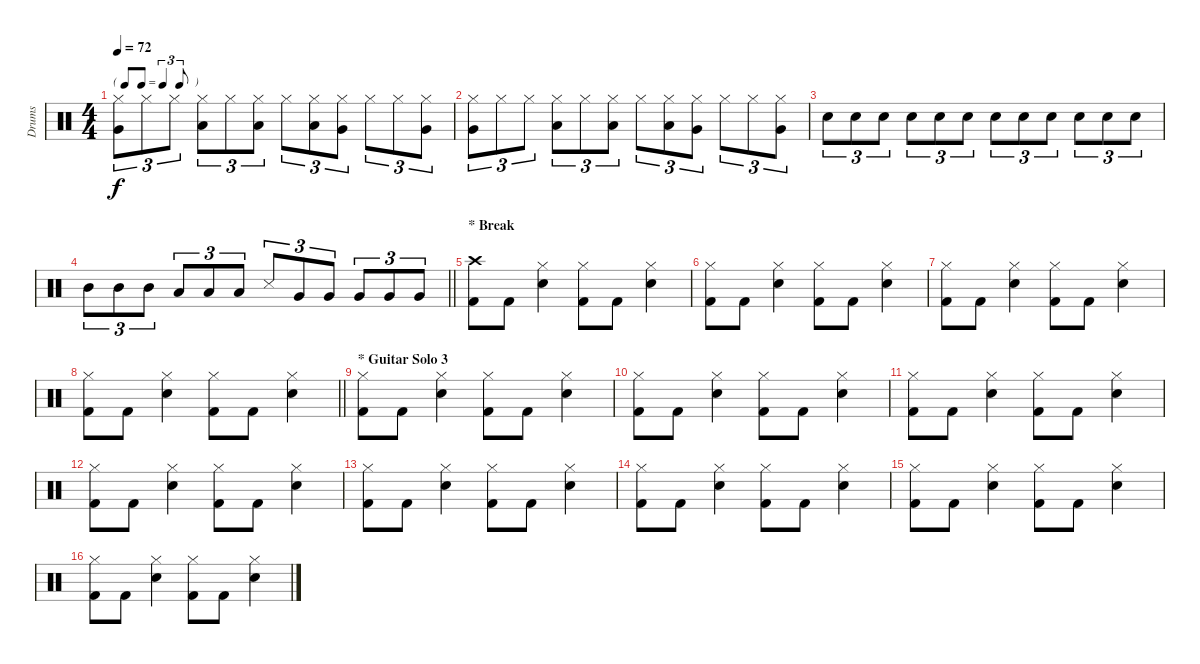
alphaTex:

\track ("Drums" "Drums") {instrument percussion}
\staff {score}
\articulation defaults
\ts (4 4)
\tf triplet8th
\tempo 72
\clef neutral
\ks c
("Hi-Hat (closed)" "Very Low Tom (hit)").8{tu (3 2) dy f} "Hi-Hat (closed)".8{tu (3 2)} "Hi-Hat (closed)".8{tu (3 2)} ("Hi-Hat (closed)" "Low Tom (hit)").8{tu (3 2)} "Hi-Hat (closed)".8{tu (3 2)} ("Hi-Hat (closed)" "Low Tom (hit)").8{tu (3 2)} "Hi-Hat (closed)".8{tu (3 2)} ("Hi-Hat (closed)" "Low Tom (hit)").8{tu (3 2)} ("Hi-Hat (closed)" "Very Low Tom (hit)").8{tu (3 2)} "Hi-Hat (closed)".8{tu (3 2)} "Hi-Hat (closed)".8{tu (3 2)} ("Hi-Hat (closed)" "Very Low Tom (hit)").8{tu (3 2)} |
("Hi-Hat (closed)" "Very Low Tom (hit)").8{tu (3 2)} "Hi-Hat (closed)".8{tu (3 2)} "Hi-Hat (closed)".8{tu (3 2)} ("Hi-Hat (closed)" "Low Tom (hit)").8{tu (3 2)} "Hi-Hat (closed)".8{tu (3 2)} ("Hi-Hat (closed)" "Low Tom (hit)").8{tu (3 2)} "Hi-Hat (closed)".8{tu (3 2)} ("Hi-Hat (closed)" "Low Tom (hit)").8{tu (3 2)} ("Hi-Hat (closed)" "Very Low Tom (hit)").8{tu (3 2)} "Hi-Hat (closed)".8{tu (3 2)} "Hi-Hat (closed)".8{tu (3 2)} ("Hi-Hat (closed)" "Very Low Tom (hit)").8{tu (3 2)} |
"Electric Snare (hit)".8{tu (3 2)} "Electric Snare (hit)".8{tu (3 2)} "Electric Snare (hit)".8{tu (3 2)} "Electric Snare (hit)".8{tu (3 2)} "Electric Snare (hit)".8{tu (3 2)} "Electric Snare (hit)".8{tu (3 2)} "Electric Snare (hit)".8{tu (3 2)} "Electric Snare (hit)".8{tu (3 2)} "Electric Snare (hit)".8{tu (3 2)} "Electric Snare (hit)".8{tu (3 2)} "Electric Snare (hit)".8{tu (3 2)} "Electric Snare (hit)".8{tu (3 2)} |
\barLineRight lightlight "Mid Tom (hit)".8{tu (3 2)} "Mid Tom (hit)".8{tu (3 2)} "Mid Tom (hit)".8{tu (3 2)} "Low Tom (hit)".8{tu (3 2)} "Low Tom (hit)".8{tu (3 2)} "Low Tom (hit)".8{tu (3 2)} "Snare (side stick) 3".8{tu (3 2)} "Very Low Tom (hit)".8{tu (3 2)} "Very Low Tom (hit)".8{tu (3 2)} "Very Low Tom (hit)".8{tu (3 2)} "Very Low Tom (hit)".8{tu (3 2)} "Very Low Tom (hit)".8{tu (3 2)}
|
\section ("" "* Break")
("Crash high (hit)" "Kick (hit) 2").8 "Kick (hit) 2".8 ("Hi-Hat (closed)" "Electric Snare (hit)").4 ("Hi-Hat (closed)" "Kick (hit) 2").8 "Kick (hit) 2".8 ("Hi-Hat (closed)" "Electric Snare (hit)").4 |
("Hi-Hat (closed)" "Kick (hit) 2").8 "Kick (hit) 2".8 ("Hi-Hat (closed)" "Electric Snare (hit)").4 ("Hi-Hat (closed)" "Kick (hit) 2").8 "Kick (hit) 2".8 ("Hi-Hat (closed)" "Electric Snare (hit)").4 |
("Hi-Hat (closed)" "Kick (hit) 2").8 "Kick (hit) 2".8 ("Hi-Hat (closed)" "Electric Snare (hit)").4 ("Hi-Hat (closed)" "Kick (hit) 2").8 "Kick (hit) 2".8 ("Hi-Hat (closed)" "Electric Snare (hit)").4 |
\barLineRight lightlight
("Hi-Hat (closed)" "Kick (hit) 2").8 "Kick (hit) 2".8 ("Hi-Hat (closed)" "Electric Snare (hit)").4 ("Hi-Hat (closed)" "Kick (hit) 2").8 "Kick (hit) 2".8 ("Hi-Hat (closed)" "Electric Snare (hit)").4 |
\section ("" "* Guitar Solo 3")
("Hi-Hat (closed)" "Kick (hit) 2").8 "Kick (hit) 2".8 ("Hi-Hat (closed)" "Electric Snare (hit)").4 ("Hi-Hat (closed)" "Kick (hit) 2").8 "Kick (hit) 2".8 ("Hi-Hat (closed)" "Electric Snare (hit)").4 |
("Hi-Hat (closed)" "Kick (hit) 2").8 "Kick (hit) 2".8 ("Hi-Hat (closed)" "Electric Snare (hit)").4 ("Hi-Hat (closed)" "Kick (hit) 2").8 "Kick (hit) 2".8 ("Hi-Hat (closed)" "Electric Snare (hit)").4 |
("Hi-Hat (closed)" "Kick (hit) 2").8 "Kick (hit) 2".8 ("Hi-Hat (closed)" "Electric Snare (hit)").4 ("Hi-Hat (closed)" "Kick (hit) 2").8 "Kick (hit) 2".8 ("Hi-Hat (closed)" "Electric Snare (hit)").4 |
("Hi-Hat (closed)" "Kick (hit) 2").8 "Kick (hit) 2".8 ("Hi-Hat (closed)" "Electric Snare (hit)").4 ("Hi-Hat (closed)" "Kick (hit) 2").8 "Kick (hit) 2".8 ("Hi-Hat (closed)" "Electric Snare (hit)").4 |
("Hi-Hat (closed)" "Kick (hit) 2").8 "Kick (hit) 2".8 ("Hi-Hat (closed)" "Electric Snare (hit)").4 ("Hi-Hat (closed)" "Kick (hit) 2").8 "Kick (hit) 2".8 ("Hi-Hat (closed)" "Electric Snare (hit)").4 |
("Hi-Hat (closed)" "Kick (hit) 2").8 "Kick (hit) 2".8 ("Hi-Hat (closed)" "Electric Snare (hit)").4 ("Hi-Hat (closed)" "Kick (hit) 2").8 "Kick (hit) 2".8 ("Hi-Hat (closed)" "Electric Snare (hit)").4 |
("Hi-Hat (closed)" "Kick (hit) 2").8 "Kick (hit) 2".8 ("Hi-Hat (closed)" "Electric Snare (hit)").4 ("Hi-Hat (closed)" "Kick (hit) 2").8 "Kick (hit) 2".8 ("Hi-Hat (closed)" "Electric Snare (hit)").4 |
("Hi-Hat (closed)" "Kick (hit) 2").8 "Kick (hit) 2".8 ("Hi-Hat (closed)" "Electric Snare (hit)").4 ("Hi-Hat (closed)" "Kick (hit) 2").8 "Kick (hit) 2".8 ("Hi-Hat (closed)" "Electric Snare (hit)").4
